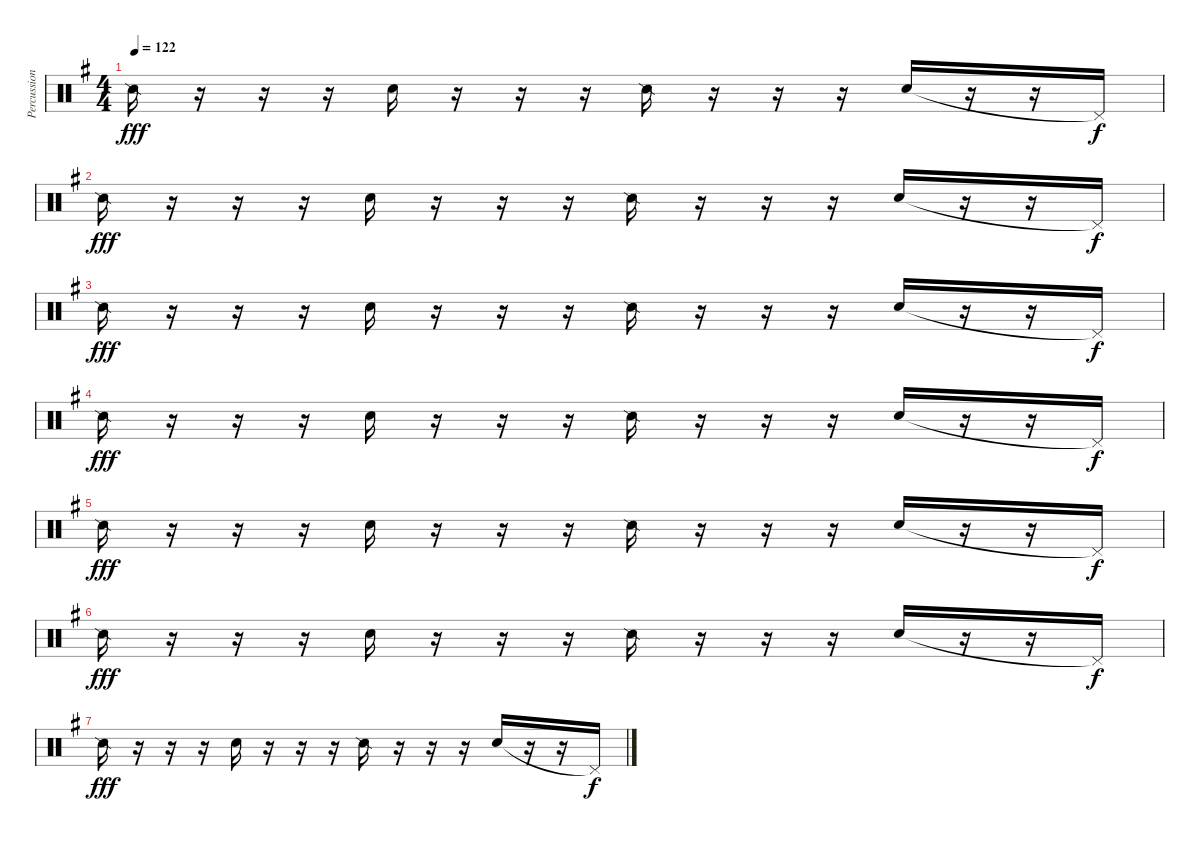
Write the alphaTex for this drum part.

\track ("Percussion" "Percussion") {instrument percussion}
\staff {score}
\articulation defaults
\ts (4 4)
\tempo 122
\clef neutral
\ks g "Snare (side stick) 2".16{dy fff}
r.16 r.16 r.16 "Hand Clap (hit)".16 r.16 r.16 r.16 "Snare (side stick) 2".16 r.16 r.16 r.16 "Hand Clap (hit)".16 r.16 r.16 "Pedal Hi-Hat (hit)"{t}.16{dy f} |
"Snare (side stick) 2".16{dy fff} r.16 r.16 r.16 "Hand Clap (hit)".16 r.16 r.16 r.16 "Snare (side stick) 2".16 r.16 r.16 r.16 "Hand Clap (hit)".16 r.16 r.16 "Pedal Hi-Hat (hit)"{t}.16{dy f} |
"Snare (side stick) 2".16{dy fff} r.16 r.16 r.16 "Hand Clap (hit)".16 r.16 r.16 r.16 "Snare (side stick) 2".16 r.16 r.16 r.16 "Hand Clap (hit)".16 r.16 r.16 "Pedal Hi-Hat (hit)"{t}.16{dy f} |
"Snare (side stick) 2".16{dy fff} r.16 r.16 r.16 "Hand Clap (hit)".16 r.16 r.16 r.16 "Snare (side stick) 2".16 r.16 r.16 r.16 "Hand Clap (hit)".16 r.16 r.16 "Pedal Hi-Hat (hit)"{t}.16{dy f} |
"Snare (side stick) 2".16{dy fff} r.16 r.16 r.16 "Hand Clap (hit)".16 r.16 r.16 r.16 "Snare (side stick) 2".16 r.16 r.16 r.16 "Hand Clap (hit)".16 r.16 r.16 "Pedal Hi-Hat (hit)"{t}.16{dy f} |
"Snare (side stick) 2".16{dy fff} r.16 r.16 r.16 "Hand Clap (hit)".16 r.16 r.16 r.16 "Snare (side stick) 2".16 r.16 r.16 r.16 "Hand Clap (hit)".16 r.16 r.16 "Pedal Hi-Hat (hit)"{t}.16{dy f} |
"Snare (side stick) 2".16{dy fff} r.16 r.16 r.16 "Hand Clap (hit)".16 r.16 r.16 r.16 "Snare (side stick) 2".16 r.16 r.16 r.16 "Hand Clap (hit)".16 r.16 r.16 "Pedal Hi-Hat (hit)"{t}.16{dy f}
